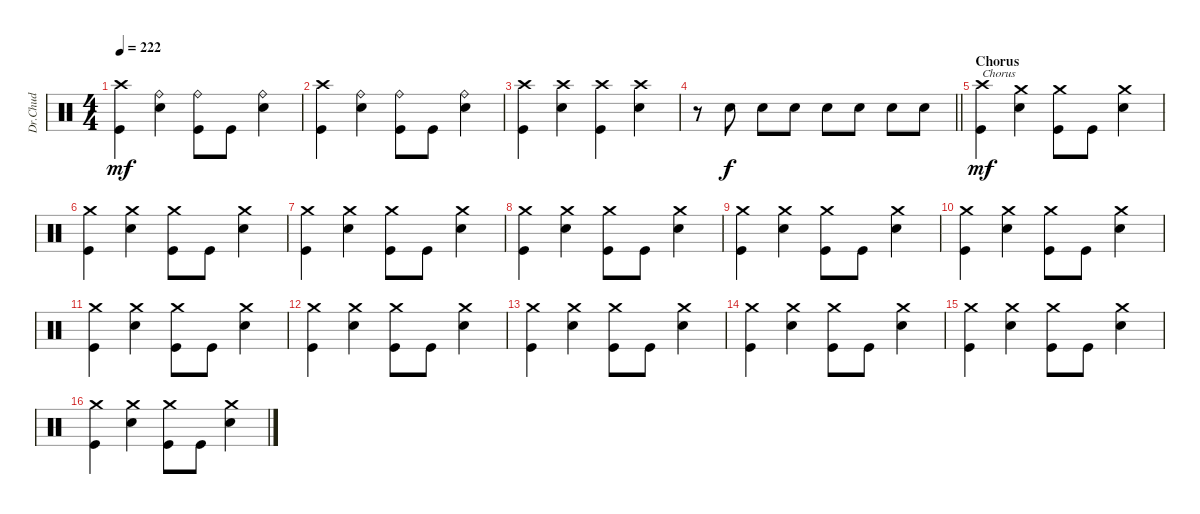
\track ("Dr.Chud" "Dr.Chud") {instrument percussion}
\staff {score}
\articulation defaults
\ts (4 4)
\tempo 222
\clef neutral
\ks c
("Crash high (hit)" "Kick (hit)").4{dy mf} ("Ride (bell)" "Electric Snare (hit)").4 ("Ride (bell)" "Kick (hit)").8 "Kick (hit)".8 ("Ride (bell)" "Electric Snare (hit)").4 |
("Crash high (hit)" "Kick (hit)").4 ("Ride (bell)" "Electric Snare (hit)").4 ("Ride (bell)" "Kick (hit)").8 "Kick (hit)".8 ("Ride (bell)" "Electric Snare (hit)").4 |
("Crash high (hit)" "Kick (hit)").4 ("Crash high (hit)" "Electric Snare (hit)").4 ("Crash high (hit)" "Kick (hit)").4 ("Crash high (hit)" "Electric Snare (hit)").4 |
\barLineRight lightlight
r.8 "Electric Snare (hit)".8{dy f} "Electric Snare (hit)".8 "Electric Snare (hit)".8 "Electric Snare (hit)".8 "Electric Snare (hit)".8 "Electric Snare (hit)".8 "Electric Snare (hit)".8 |
\section ("" "Chorus")
("Crash high (hit)" "Kick (hit)").4{txt "Chorus" dy mf} ("Crash medium (hit)" "Electric Snare (hit)").4 ("Crash medium (hit)" "Kick (hit)").8 "Kick (hit)".8 ("Crash medium (hit)" "Electric Snare (hit)").4 |
("Crash medium (hit)" "Kick (hit)").4 ("Crash medium (hit)" "Electric Snare (hit)").4 ("Crash medium (hit)" "Kick (hit)").8 "Kick (hit)".8 ("Crash medium (hit)" "Electric Snare (hit)").4 |
("Crash medium (hit)" "Kick (hit)").4 ("Crash medium (hit)" "Electric Snare (hit)").4 ("Crash medium (hit)" "Kick (hit)").8 "Kick (hit)".8 ("Crash medium (hit)" "Electric Snare (hit)").4 |
("Crash medium (hit)" "Kick (hit)").4 ("Crash medium (hit)" "Electric Snare (hit)").4 ("Crash medium (hit)" "Kick (hit)").8 "Kick (hit)".8 ("Crash medium (hit)" "Electric Snare (hit)").4 |
("Crash medium (hit)" "Kick (hit)").4 ("Crash medium (hit)" "Electric Snare (hit)").4 ("Crash medium (hit)" "Kick (hit)").8 "Kick (hit)".8 ("Crash medium (hit)" "Electric Snare (hit)").4 |
("Crash medium (hit)" "Kick (hit)").4 ("Crash medium (hit)" "Electric Snare (hit)").4 ("Crash medium (hit)" "Kick (hit)").8 "Kick (hit)".8 ("Crash medium (hit)" "Electric Snare (hit)").4 |
("Crash medium (hit)" "Kick (hit)").4 ("Crash medium (hit)" "Electric Snare (hit)").4 ("Crash medium (hit)" "Kick (hit)").8 "Kick (hit)".8 ("Crash medium (hit)" "Electric Snare (hit)").4 |
("Crash medium (hit)" "Kick (hit)").4 ("Crash medium (hit)" "Electric Snare (hit)").4 ("Crash medium (hit)" "Kick (hit)").8 "Kick (hit)".8 ("Crash medium (hit)" "Electric Snare (hit)").4 |
("Crash medium (hit)" "Kick (hit)").4 ("Crash medium (hit)" "Electric Snare (hit)").4 ("Crash medium (hit)" "Kick (hit)").8 "Kick (hit)".8 ("Crash medium (hit)" "Electric Snare (hit)").4 |
("Crash medium (hit)" "Kick (hit)").4 ("Crash medium (hit)" "Electric Snare (hit)").4 ("Crash medium (hit)" "Kick (hit)").8 "Kick (hit)".8 ("Crash medium (hit)" "Electric Snare (hit)").4 |
("Crash medium (hit)" "Kick (hit)").4 ("Crash medium (hit)" "Electric Snare (hit)").4 ("Crash medium (hit)" "Kick (hit)").8 "Kick (hit)".8 ("Crash medium (hit)" "Electric Snare (hit)").4 |
("Crash medium (hit)" "Kick (hit)").4 ("Crash medium (hit)" "Electric Snare (hit)").4 ("Crash medium (hit)" "Kick (hit)").8 "Kick (hit)".8 ("Crash medium (hit)" "Electric Snare (hit)").4
